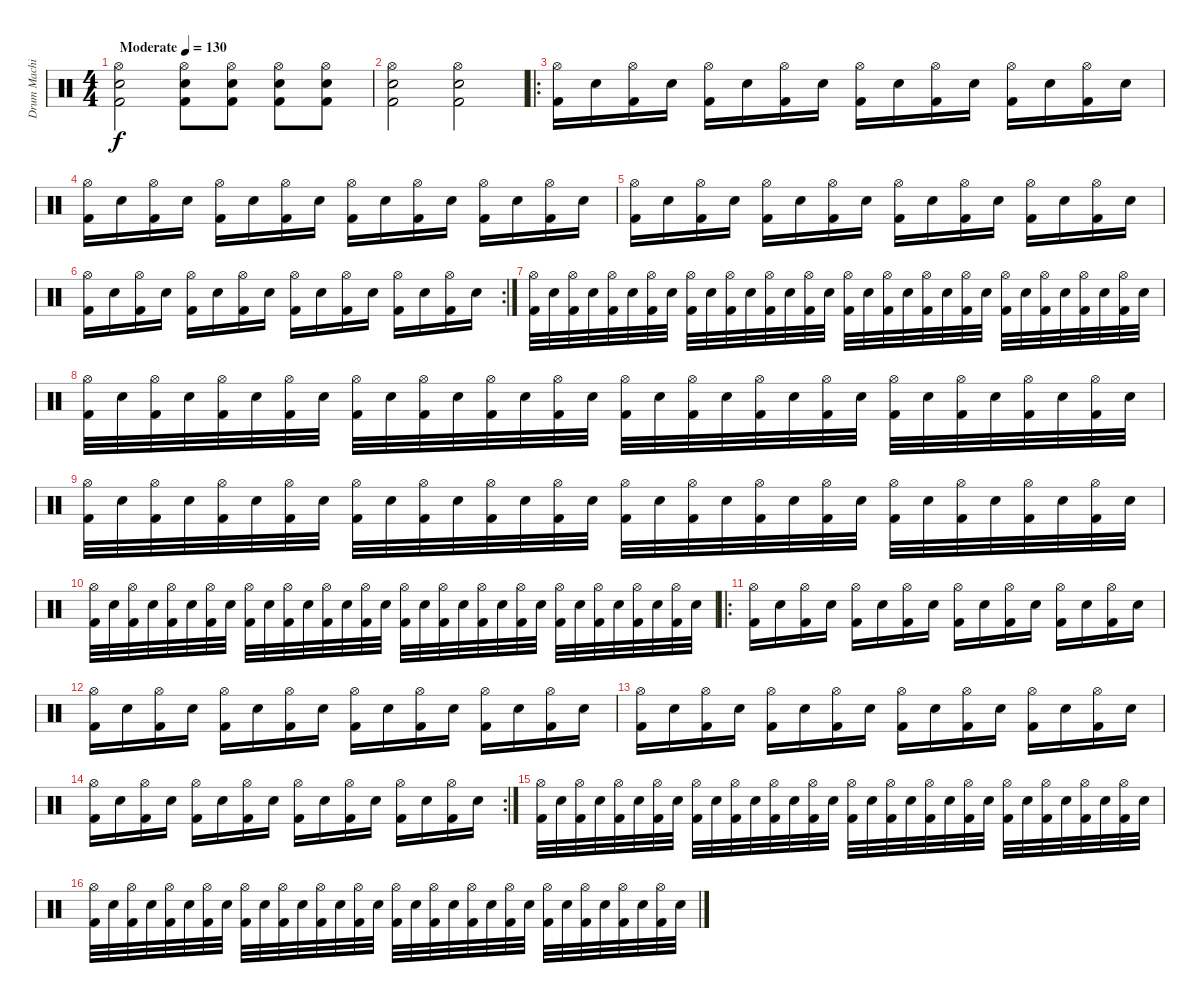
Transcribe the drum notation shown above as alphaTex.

\track ("Drum Machine" "Drum Machi") {instrument percussion}
\staff {score}
\articulation defaults
\ts (4 4)
\tempo (130 "Moderate")
\clef neutral
\ks c
("Hi-Hat (open)" "Snare (hit) 2" "Kick (hit) 2").2{dy f} ("Hi-Hat (open)" "Snare (hit) 2" "Kick (hit) 2").8 ("Hi-Hat (open)" "Snare (hit) 2" "Kick (hit) 2").8 ("Hi-Hat (open)" "Snare (hit) 2" "Kick (hit) 2").8 ("Hi-Hat (open)" "Snare (hit) 2" "Kick (hit) 2").8 |
("Hi-Hat (open)" "Snare (hit) 2" "Kick (hit) 2").2 ("Hi-Hat (open)" "Snare (hit) 2" "Kick (hit) 2").2 |
\ro
("Hi-Hat (open)" "Kick (hit) 2").16 "Snare (hit) 2".16 ("Hi-Hat (open)" "Kick (hit) 2").16 "Snare (hit) 2".16 ("Hi-Hat (open)" "Kick (hit) 2").16 "Snare (hit) 2".16 ("Hi-Hat (open)" "Kick (hit) 2").16 "Snare (hit) 2".16 ("Hi-Hat (open)" "Kick (hit) 2").16 "Snare (hit) 2".16 ("Hi-Hat (open)" "Kick (hit) 2").16 "Snare (hit) 2".16 ("Hi-Hat (open)" "Kick (hit) 2").16 "Snare (hit) 2".16 ("Hi-Hat (open)" "Kick (hit) 2").16 "Snare (hit) 2".16 |
("Hi-Hat (open)" "Kick (hit) 2").16 "Snare (hit) 2".16 ("Hi-Hat (open)" "Kick (hit) 2").16 "Snare (hit) 2".16 ("Hi-Hat (open)" "Kick (hit) 2").16 "Snare (hit) 2".16 ("Hi-Hat (open)" "Kick (hit) 2").16 "Snare (hit) 2".16 ("Hi-Hat (open)" "Kick (hit) 2").16 "Snare (hit) 2".16 ("Hi-Hat (open)" "Kick (hit) 2").16 "Snare (hit) 2".16 ("Hi-Hat (open)" "Kick (hit) 2").16 "Snare (hit) 2".16 ("Hi-Hat (open)" "Kick (hit) 2").16 "Snare (hit) 2".16 |
("Hi-Hat (open)" "Kick (hit) 2").16 "Snare (hit) 2".16 ("Hi-Hat (open)" "Kick (hit) 2").16 "Snare (hit) 2".16 ("Hi-Hat (open)" "Kick (hit) 2").16 "Snare (hit) 2".16 ("Hi-Hat (open)" "Kick (hit) 2").16 "Snare (hit) 2".16 ("Hi-Hat (open)" "Kick (hit) 2").16 "Snare (hit) 2".16 ("Hi-Hat (open)" "Kick (hit) 2").16 "Snare (hit) 2".16 ("Hi-Hat (open)" "Kick (hit) 2").16 "Snare (hit) 2".16 ("Hi-Hat (open)" "Kick (hit) 2").16 "Snare (hit) 2".16 |
\rc 2
("Hi-Hat (open)" "Kick (hit) 2").16 "Snare (hit) 2".16 ("Hi-Hat (open)" "Kick (hit) 2").16 "Snare (hit) 2".16 ("Hi-Hat (open)" "Kick (hit) 2").16 "Snare (hit) 2".16 ("Hi-Hat (open)" "Kick (hit) 2").16 "Snare (hit) 2".16 ("Hi-Hat (open)" "Kick (hit) 2").16 "Snare (hit) 2".16 ("Hi-Hat (open)" "Kick (hit) 2").16 "Snare (hit) 2".16 ("Hi-Hat (open)" "Kick (hit) 2").16 "Snare (hit) 2".16 ("Hi-Hat (open)" "Kick (hit) 2").16 "Snare (hit) 2".16 |
("Hi-Hat (open)" "Kick (hit) 2").32 "Snare (hit) 2".32 ("Hi-Hat (open)" "Kick (hit) 2").32 "Snare (hit) 2".32 ("Hi-Hat (open)" "Kick (hit) 2").32 "Snare (hit) 2".32 ("Hi-Hat (open)" "Kick (hit) 2").32 "Snare (hit) 2".32 ("Hi-Hat (open)" "Kick (hit) 2").32 "Snare (hit) 2".32 ("Hi-Hat (open)" "Kick (hit) 2").32 "Snare (hit) 2".32 ("Hi-Hat (open)" "Kick (hit) 2").32 "Snare (hit) 2".32 ("Hi-Hat (open)" "Kick (hit) 2").32 "Snare (hit) 2".32 ("Hi-Hat (open)" "Kick (hit) 2").32 "Snare (hit) 2".32 ("Hi-Hat (open)" "Kick (hit) 2").32 "Snare (hit) 2".32 ("Hi-Hat (open)" "Kick (hit) 2").32 "Snare (hit) 2".32 ("Hi-Hat (open)" "Kick (hit) 2").32 "Snare (hit) 2".32 ("Hi-Hat (open)" "Kick (hit) 2").32 "Snare (hit) 2".32 ("Hi-Hat (open)" "Kick (hit) 2").32 "Snare (hit) 2".32 ("Hi-Hat (open)" "Kick (hit) 2").32 "Snare (hit) 2".32 ("Hi-Hat (open)" "Kick (hit) 2").32 "Snare (hit) 2".32 |
("Hi-Hat (open)" "Kick (hit) 2").32 "Snare (hit) 2".32 ("Hi-Hat (open)" "Kick (hit) 2").32 "Snare (hit) 2".32 ("Hi-Hat (open)" "Kick (hit) 2").32 "Snare (hit) 2".32 ("Hi-Hat (open)" "Kick (hit) 2").32 "Snare (hit) 2".32 ("Hi-Hat (open)" "Kick (hit) 2").32 "Snare (hit) 2".32 ("Hi-Hat (open)" "Kick (hit) 2").32 "Snare (hit) 2".32 ("Hi-Hat (open)" "Kick (hit) 2").32 "Snare (hit) 2".32 ("Hi-Hat (open)" "Kick (hit) 2").32 "Snare (hit) 2".32 ("Hi-Hat (open)" "Kick (hit) 2").32 "Snare (hit) 2".32 ("Hi-Hat (open)" "Kick (hit) 2").32 "Snare (hit) 2".32 ("Hi-Hat (open)" "Kick (hit) 2").32 "Snare (hit) 2".32 ("Hi-Hat (open)" "Kick (hit) 2").32 "Snare (hit) 2".32 ("Hi-Hat (open)" "Kick (hit) 2").32 "Snare (hit) 2".32 ("Hi-Hat (open)" "Kick (hit) 2").32 "Snare (hit) 2".32 ("Hi-Hat (open)" "Kick (hit) 2").32 "Snare (hit) 2".32 ("Hi-Hat (open)" "Kick (hit) 2").32 "Snare (hit) 2".32 |
("Hi-Hat (open)" "Kick (hit) 2").32 "Snare (hit) 2".32 ("Hi-Hat (open)" "Kick (hit) 2").32 "Snare (hit) 2".32 ("Hi-Hat (open)" "Kick (hit) 2").32 "Snare (hit) 2".32 ("Hi-Hat (open)" "Kick (hit) 2").32 "Snare (hit) 2".32 ("Hi-Hat (open)" "Kick (hit) 2").32 "Snare (hit) 2".32 ("Hi-Hat (open)" "Kick (hit) 2").32 "Snare (hit) 2".32 ("Hi-Hat (open)" "Kick (hit) 2").32 "Snare (hit) 2".32 ("Hi-Hat (open)" "Kick (hit) 2").32 "Snare (hit) 2".32 ("Hi-Hat (open)" "Kick (hit) 2").32 "Snare (hit) 2".32 ("Hi-Hat (open)" "Kick (hit) 2").32 "Snare (hit) 2".32 ("Hi-Hat (open)" "Kick (hit) 2").32 "Snare (hit) 2".32 ("Hi-Hat (open)" "Kick (hit) 2").32 "Snare (hit) 2".32 ("Hi-Hat (open)" "Kick (hit) 2").32 "Snare (hit) 2".32 ("Hi-Hat (open)" "Kick (hit) 2").32 "Snare (hit) 2".32 ("Hi-Hat (open)" "Kick (hit) 2").32 "Snare (hit) 2".32 ("Hi-Hat (open)" "Kick (hit) 2").32 "Snare (hit) 2".32 |
("Hi-Hat (open)" "Kick (hit) 2").32 "Snare (hit) 2".32 ("Hi-Hat (open)" "Kick (hit) 2").32 "Snare (hit) 2".32 ("Hi-Hat (open)" "Kick (hit) 2").32 "Snare (hit) 2".32 ("Hi-Hat (open)" "Kick (hit) 2").32 "Snare (hit) 2".32 ("Hi-Hat (open)" "Kick (hit) 2").32 "Snare (hit) 2".32 ("Hi-Hat (open)" "Kick (hit) 2").32 "Snare (hit) 2".32 ("Hi-Hat (open)" "Kick (hit) 2").32 "Snare (hit) 2".32 ("Hi-Hat (open)" "Kick (hit) 2").32 "Snare (hit) 2".32 ("Hi-Hat (open)" "Kick (hit) 2").32 "Snare (hit) 2".32 ("Hi-Hat (open)" "Kick (hit) 2").32 "Snare (hit) 2".32 ("Hi-Hat (open)" "Kick (hit) 2").32 "Snare (hit) 2".32 ("Hi-Hat (open)" "Kick (hit) 2").32 "Snare (hit) 2".32 ("Hi-Hat (open)" "Kick (hit) 2").32 "Snare (hit) 2".32 ("Hi-Hat (open)" "Kick (hit) 2").32 "Snare (hit) 2".32 ("Hi-Hat (open)" "Kick (hit) 2").32 "Snare (hit) 2".32 ("Hi-Hat (open)" "Kick (hit) 2").32 "Snare (hit) 2".32 |
\ro
("Hi-Hat (open)" "Kick (hit) 2").16 "Snare (hit) 2".16 ("Hi-Hat (open)" "Kick (hit) 2").16 "Snare (hit) 2".16 ("Hi-Hat (open)" "Kick (hit) 2").16 "Snare (hit) 2".16 ("Hi-Hat (open)" "Kick (hit) 2").16 "Snare (hit) 2".16 ("Hi-Hat (open)" "Kick (hit) 2").16 "Snare (hit) 2".16 ("Hi-Hat (open)" "Kick (hit) 2").16 "Snare (hit) 2".16 ("Hi-Hat (open)" "Kick (hit) 2").16 "Snare (hit) 2".16 ("Hi-Hat (open)" "Kick (hit) 2").16 "Snare (hit) 2".16 |
("Hi-Hat (open)" "Kick (hit) 2").16 "Snare (hit) 2".16 ("Hi-Hat (open)" "Kick (hit) 2").16 "Snare (hit) 2".16 ("Hi-Hat (open)" "Kick (hit) 2").16 "Snare (hit) 2".16 ("Hi-Hat (open)" "Kick (hit) 2").16 "Snare (hit) 2".16 ("Hi-Hat (open)" "Kick (hit) 2").16 "Snare (hit) 2".16 ("Hi-Hat (open)" "Kick (hit) 2").16 "Snare (hit) 2".16 ("Hi-Hat (open)" "Kick (hit) 2").16 "Snare (hit) 2".16 ("Hi-Hat (open)" "Kick (hit) 2").16 "Snare (hit) 2".16 |
("Hi-Hat (open)" "Kick (hit) 2").16 "Snare (hit) 2".16 ("Hi-Hat (open)" "Kick (hit) 2").16 "Snare (hit) 2".16 ("Hi-Hat (open)" "Kick (hit) 2").16 "Snare (hit) 2".16 ("Hi-Hat (open)" "Kick (hit) 2").16 "Snare (hit) 2".16 ("Hi-Hat (open)" "Kick (hit) 2").16 "Snare (hit) 2".16 ("Hi-Hat (open)" "Kick (hit) 2").16 "Snare (hit) 2".16 ("Hi-Hat (open)" "Kick (hit) 2").16 "Snare (hit) 2".16 ("Hi-Hat (open)" "Kick (hit) 2").16 "Snare (hit) 2".16 |
\rc 2
("Hi-Hat (open)" "Kick (hit) 2").16 "Snare (hit) 2".16 ("Hi-Hat (open)" "Kick (hit) 2").16 "Snare (hit) 2".16 ("Hi-Hat (open)" "Kick (hit) 2").16 "Snare (hit) 2".16 ("Hi-Hat (open)" "Kick (hit) 2").16 "Snare (hit) 2".16 ("Hi-Hat (open)" "Kick (hit) 2").16 "Snare (hit) 2".16 ("Hi-Hat (open)" "Kick (hit) 2").16 "Snare (hit) 2".16 ("Hi-Hat (open)" "Kick (hit) 2").16 "Snare (hit) 2".16 ("Hi-Hat (open)" "Kick (hit) 2").16 "Snare (hit) 2".16 |
("Hi-Hat (open)" "Kick (hit) 2").32 "Snare (hit) 2".32 ("Hi-Hat (open)" "Kick (hit) 2").32 "Snare (hit) 2".32 ("Hi-Hat (open)" "Kick (hit) 2").32 "Snare (hit) 2".32 ("Hi-Hat (open)" "Kick (hit) 2").32 "Snare (hit) 2".32 ("Hi-Hat (open)" "Kick (hit) 2").32 "Snare (hit) 2".32 ("Hi-Hat (open)" "Kick (hit) 2").32 "Snare (hit) 2".32 ("Hi-Hat (open)" "Kick (hit) 2").32 "Snare (hit) 2".32 ("Hi-Hat (open)" "Kick (hit) 2").32 "Snare (hit) 2".32 ("Hi-Hat (open)" "Kick (hit) 2").32 "Snare (hit) 2".32 ("Hi-Hat (open)" "Kick (hit) 2").32 "Snare (hit) 2".32 ("Hi-Hat (open)" "Kick (hit) 2").32 "Snare (hit) 2".32 ("Hi-Hat (open)" "Kick (hit) 2").32 "Snare (hit) 2".32 ("Hi-Hat (open)" "Kick (hit) 2").32 "Snare (hit) 2".32 ("Hi-Hat (open)" "Kick (hit) 2").32 "Snare (hit) 2".32 ("Hi-Hat (open)" "Kick (hit) 2").32 "Snare (hit) 2".32 ("Hi-Hat (open)" "Kick (hit) 2").32 "Snare (hit) 2".32 |
("Hi-Hat (open)" "Kick (hit) 2").32 "Snare (hit) 2".32 ("Hi-Hat (open)" "Kick (hit) 2").32 "Snare (hit) 2".32 ("Hi-Hat (open)" "Kick (hit) 2").32 "Snare (hit) 2".32 ("Hi-Hat (open)" "Kick (hit) 2").32 "Snare (hit) 2".32 ("Hi-Hat (open)" "Kick (hit) 2").32 "Snare (hit) 2".32 ("Hi-Hat (open)" "Kick (hit) 2").32 "Snare (hit) 2".32 ("Hi-Hat (open)" "Kick (hit) 2").32 "Snare (hit) 2".32 ("Hi-Hat (open)" "Kick (hit) 2").32 "Snare (hit) 2".32 ("Hi-Hat (open)" "Kick (hit) 2").32 "Snare (hit) 2".32 ("Hi-Hat (open)" "Kick (hit) 2").32 "Snare (hit) 2".32 ("Hi-Hat (open)" "Kick (hit) 2").32 "Snare (hit) 2".32 ("Hi-Hat (open)" "Kick (hit) 2").32 "Snare (hit) 2".32 ("Hi-Hat (open)" "Kick (hit) 2").32 "Snare (hit) 2".32 ("Hi-Hat (open)" "Kick (hit) 2").32 "Snare (hit) 2".32 ("Hi-Hat (open)" "Kick (hit) 2").32 "Snare (hit) 2".32 ("Hi-Hat (open)" "Kick (hit) 2").32 "Snare (hit) 2".32
